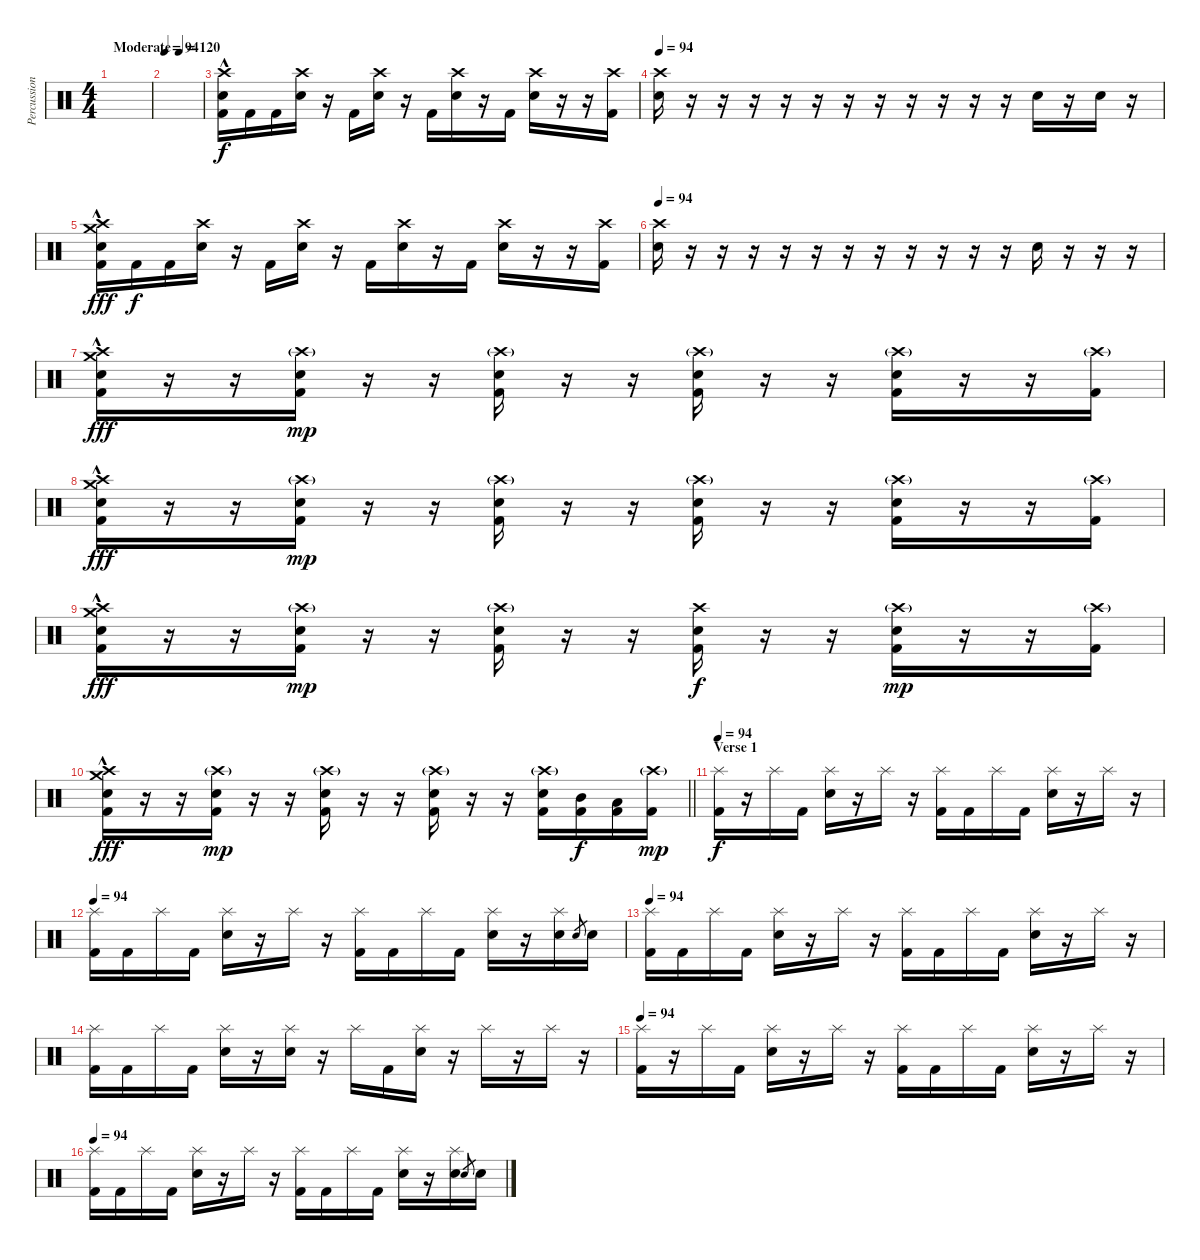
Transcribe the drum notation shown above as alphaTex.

\track ("Percussion" "Percussion") {instrument percussion}
\staff {score}
\articulation defaults
\ts (4 4)
\tempo (120 "Moderate")
\tempo 94
\tempo (120 "Moderate")
\clef neutral
\ks c
|
\tempo 94
|
("Kick (hit) 2" "Snare (hit) 2" "Crash high (hit)"{hac}).16 "Kick (hit) 2".16{dy f} "Kick (hit) 2".16 ("Snare (hit) 2" "Crash high (hit)").16 r.16 "Kick (hit) 2".16 ("Snare (hit) 2" "Crash high (hit)").16 r.16 "Kick (hit) 2".16 ("Snare (hit) 2" "Crash high (hit)").16 r.16 "Kick (hit) 2".16 ("Snare (hit) 2" "Crash high (hit)").16 r.16 r.16 ("Kick (hit) 2" "Crash high (hit)").16 |
\tempo 94
("Snare (hit) 2" "Crash high (hit)").16 r.16 r.16 r.16 r.16 r.16 r.16 r.16 r.16 r.16 r.16 r.16 "Snare (hit) 2".16 r.16 "Snare (hit) 2".16 r.16 |
("Kick (hit) 2" "Snare (hit) 2" "Crash medium (hit)"{hac} "Crash high (hit)"{hac}).16{dy fff} "Kick (hit) 2".16{dy f} "Kick (hit) 2".16 ("Snare (hit) 2" "Crash high (hit)").16 r.16 "Kick (hit) 2".16 ("Snare (hit) 2" "Crash high (hit)").16 r.16 "Kick (hit) 2".16 ("Snare (hit) 2" "Crash high (hit)").16 r.16 "Kick (hit) 2".16 ("Snare (hit) 2" "Crash high (hit)").16 r.16 r.16 ("Kick (hit) 2" "Crash high (hit)").16 |
\tempo 94
("Snare (hit) 2" "Crash high (hit)").16 r.16 r.16 r.16 r.16 r.16 r.16 r.16 r.16 r.16 r.16 r.16 "Snare (hit) 2".16 r.16 r.16 r.16 |
("Kick (hit) 2" "Snare (hit) 2" "Crash medium (hit)"{hac} "Crash high (hit)"{hac}).16{dy fff} r.16 r.16 ("Kick (hit) 2" "Snare (hit) 2" "Crash high (hit)"{g}).16{dy mp} r.16 r.16 ("Kick (hit) 2" "Snare (hit) 2" "Crash high (hit)"{g}).16 r.16 r.16 ("Kick (hit) 2" "Snare (hit) 2" "Crash high (hit)"{g}).16 r.16 r.16 ("Kick (hit) 2" "Snare (hit) 2" "Crash high (hit)"{g}).16 r.16 r.16 ("Kick (hit) 2" "Crash high (hit)"{g}).16 |
("Kick (hit) 2" "Snare (hit) 2" "Crash medium (hit)"{hac} "Crash high (hit)"{hac}).16{dy fff} r.16 r.16 ("Kick (hit) 2" "Snare (hit) 2" "Crash high (hit)"{g}).16{dy mp} r.16 r.16 ("Kick (hit) 2" "Snare (hit) 2" "Crash high (hit)"{g}).16 r.16 r.16 ("Kick (hit) 2" "Snare (hit) 2" "Crash high (hit)"{g}).16 r.16 r.16 ("Kick (hit) 2" "Snare (hit) 2" "Crash high (hit)"{g}).16 r.16 r.16 ("Kick (hit) 2" "Crash high (hit)"{g}).16 |
("Kick (hit) 2" "Snare (hit) 2" "Crash medium (hit)"{hac} "Crash high (hit)"{hac}).16{dy fff} r.16 r.16 ("Kick (hit) 2" "Snare (hit) 2" "Crash high (hit)"{g}).16{dy mp} r.16 r.16 ("Kick (hit) 2" "Snare (hit) 2" "Crash high (hit)"{g}).16 r.16 r.16 ("Kick (hit) 2" "Snare (hit) 2" "Crash high (hit)").16{dy f} r.16 r.16 ("Kick (hit) 2" "Snare (hit) 2" "Crash high (hit)"{g}).16{dy mp} r.16 r.16 ("Kick (hit) 2" "Crash high (hit)"{g}).16 |
\barLineRight lightlight
("Kick (hit) 2" "Snare (hit) 2" "Crash medium (hit)"{hac} "Crash high (hit)"{hac}).16{dy fff} r.16 r.16 ("Kick (hit) 2" "Snare (hit) 2" "Crash high (hit)"{g}).16{dy mp} r.16 r.16 ("Kick (hit) 2" "Snare (hit) 2" "Crash high (hit)"{g}).16 r.16 r.16 ("Kick (hit) 2" "Snare (hit) 2" "Crash high (hit)"{g}).16 r.16 r.16 ("Kick (hit) 2" "Snare (hit) 2" "Crash high (hit)"{g}).16 ("Kick (hit) 2" "Mid Tom (hit)").16{dy f} ("Kick (hit) 2" "Low Tom (hit)").16 ("Kick (hit) 2" "Crash high (hit)"{g}).16{dy mp} |
\section ("" "Verse 1")
\tempo 94
("Kick (hit) 2" "Splash (hit)").16{dy f} r.16 "Splash (hit)".16 "Kick (hit) 2".16 ("Snare (hit) 2" "Splash (hit)").16 r.16 "Splash (hit)".16 r.16 ("Kick (hit) 2" "Splash (hit)").16 "Kick (hit) 2".16 "Splash (hit)".16 "Kick (hit) 2".16 ("Snare (hit) 2" "Splash (hit)").16 r.16 "Splash (hit)".16 r.16 |
\tempo 94
("Kick (hit) 2" "Splash (hit)").16 "Kick (hit) 2".16 "Splash (hit)".16 "Kick (hit) 2".16 ("Snare (hit) 2" "Splash (hit)").16 r.16 "Splash (hit)".16 r.16 ("Kick (hit) 2" "Splash (hit)").16 "Kick (hit) 2".16 "Splash (hit)".16 "Kick (hit) 2".16 ("Snare (hit) 2" "Splash (hit)").16 r.16 ("Snare (hit) 2" "Splash (hit)").16 "Snare (hit) 2".8{gr} "Snare (hit) 2".16 |
\tempo 94
("Kick (hit) 2" "Splash (hit)").16 "Kick (hit) 2".16 "Splash (hit)".16 "Kick (hit) 2".16 ("Snare (hit) 2" "Splash (hit)").16 r.16 "Splash (hit)".16 r.16 ("Kick (hit) 2" "Splash (hit)").16 "Kick (hit) 2".16 "Splash (hit)".16 "Kick (hit) 2".16 ("Snare (hit) 2" "Splash (hit)").16 r.16 "Splash (hit)".16 r.16 |
("Kick (hit) 2" "Splash (hit)").16 "Kick (hit) 2".16 "Splash (hit)".16 "Kick (hit) 2".16 ("Snare (hit) 2" "Splash (hit)").16 r.16 ("Snare (hit) 2" "Splash (hit)").16 r.16 "Splash (hit)".16 "Kick (hit) 2".16 ("Snare (hit) 2" "Splash (hit)").16 r.16 "Splash (hit)".16 r.16 "Splash (hit)".16 r.16 |
\tempo 94
("Kick (hit) 2" "Splash (hit)").16 r.16 "Splash (hit)".16 "Kick (hit) 2".16 ("Snare (hit) 2" "Splash (hit)").16 r.16 "Splash (hit)".16 r.16 ("Kick (hit) 2" "Splash (hit)").16 "Kick (hit) 2".16 "Splash (hit)".16 "Kick (hit) 2".16 ("Snare (hit) 2" "Splash (hit)").16 r.16 "Splash (hit)".16 r.16 |
\tempo 94
("Kick (hit) 2" "Splash (hit)").16 "Kick (hit) 2".16 "Splash (hit)".16 "Kick (hit) 2".16 ("Snare (hit) 2" "Splash (hit)").16 r.16 "Splash (hit)".16 r.16 ("Kick (hit) 2" "Splash (hit)").16 "Kick (hit) 2".16 "Splash (hit)".16 "Kick (hit) 2".16 ("Snare (hit) 2" "Splash (hit)").16 r.16 ("Snare (hit) 2" "Splash (hit)").16 "Snare (hit) 2".8{gr} "Snare (hit) 2".16
